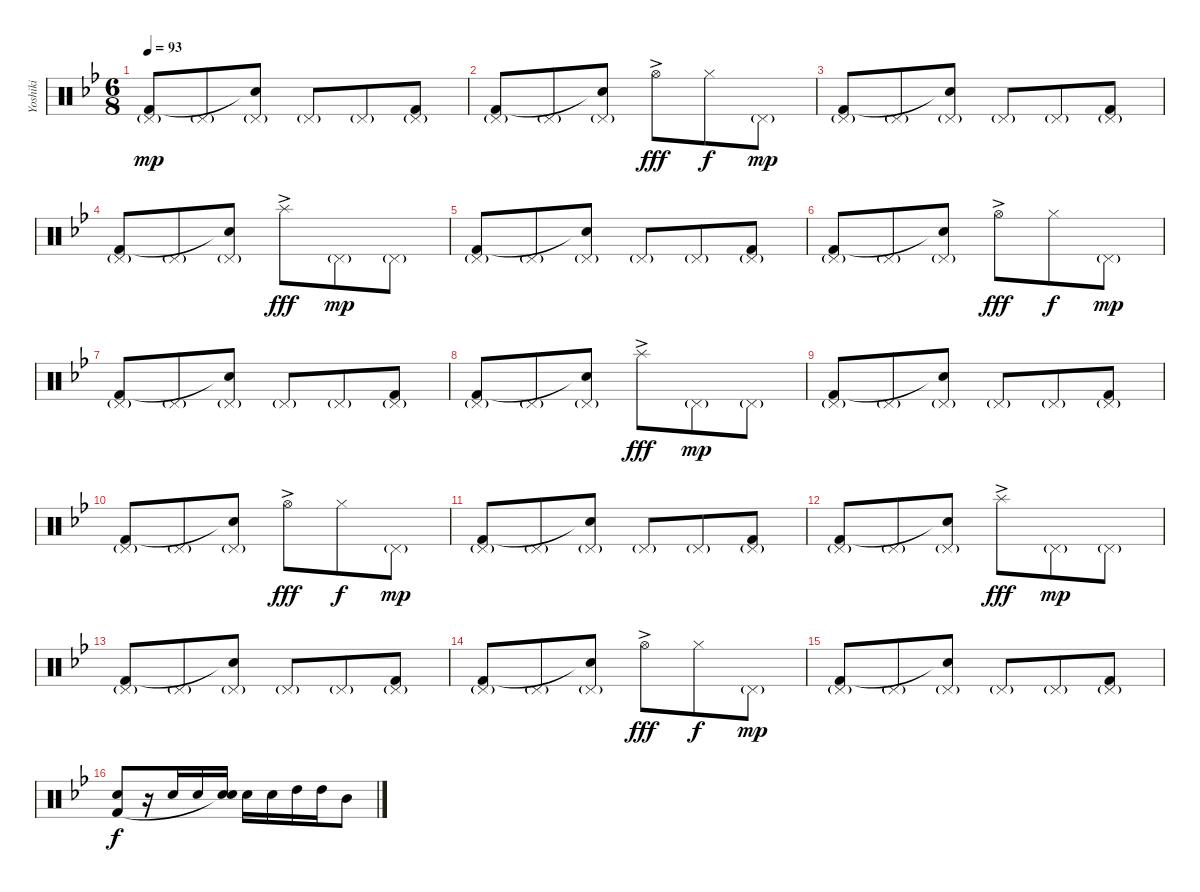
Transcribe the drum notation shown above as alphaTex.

\track ("Yoshiki" "Yoshiki") {instrument percussion}
\staff {score}
\articulation defaults
\ts (6 8)
\tempo 93
\clef neutral
\ks bb
("Pedal Hi-Hat (hit)"{g} "Kick (hit) 2").8{dy mp} "Pedal Hi-Hat (hit)"{g}.8 ("Pedal Hi-Hat (hit)"{g} "Snare (hit)"{t}).8 "Pedal Hi-Hat (hit)"{g}.8 "Pedal Hi-Hat (hit)"{g}.8 ("Pedal Hi-Hat (hit)"{g} "Kick (hit) 2").8 |
("Pedal Hi-Hat (hit)"{g} "Kick (hit) 2").8 "Pedal Hi-Hat (hit)"{g}.8 ("Pedal Hi-Hat (hit)"{g} "Snare (hit)"{t}).8 "Hi-Hat (open)"{ac}.8{dy fff} "Hi-Hat (closed)".8{dy f} "Pedal Hi-Hat (hit)"{g}.8{dy mp} |
("Pedal Hi-Hat (hit)"{g} "Kick (hit) 2").8 "Pedal Hi-Hat (hit)"{g}.8 ("Pedal Hi-Hat (hit)"{g} "Snare (hit)"{t}).8 "Pedal Hi-Hat (hit)"{g}.8 "Pedal Hi-Hat (hit)"{g}.8 ("Pedal Hi-Hat (hit)"{g} "Kick (hit) 2").8 |
("Pedal Hi-Hat (hit)"{g} "Kick (hit) 2").8 "Pedal Hi-Hat (hit)"{g}.8 ("Pedal Hi-Hat (hit)"{g} "Snare (hit)"{t}).8 "Splash (hit)"{ac}.8{dy fff} "Pedal Hi-Hat (hit)"{g}.8{dy mp} "Pedal Hi-Hat (hit)"{g}.8 |
("Pedal Hi-Hat (hit)"{g} "Kick (hit) 2").8 "Pedal Hi-Hat (hit)"{g}.8 ("Pedal Hi-Hat (hit)"{g} "Snare (hit)"{t}).8 "Pedal Hi-Hat (hit)"{g}.8 "Pedal Hi-Hat (hit)"{g}.8 ("Pedal Hi-Hat (hit)"{g} "Kick (hit) 2").8 |
("Pedal Hi-Hat (hit)"{g} "Kick (hit) 2").8 "Pedal Hi-Hat (hit)"{g}.8 ("Pedal Hi-Hat (hit)"{g} "Snare (hit)"{t}).8 "Hi-Hat (open)"{ac}.8{dy fff} "Hi-Hat (closed)".8{dy f} "Pedal Hi-Hat (hit)"{g}.8{dy mp} |
("Pedal Hi-Hat (hit)"{g} "Kick (hit) 2").8 "Pedal Hi-Hat (hit)"{g}.8 ("Pedal Hi-Hat (hit)"{g} "Snare (hit)"{t}).8 "Pedal Hi-Hat (hit)"{g}.8 "Pedal Hi-Hat (hit)"{g}.8 ("Pedal Hi-Hat (hit)"{g} "Kick (hit) 2").8 |
("Pedal Hi-Hat (hit)"{g} "Kick (hit) 2").8 "Pedal Hi-Hat (hit)"{g}.8 ("Pedal Hi-Hat (hit)"{g} "Snare (hit)"{t}).8 "Splash (hit)"{ac}.8{dy fff} "Pedal Hi-Hat (hit)"{g}.8{dy mp} "Pedal Hi-Hat (hit)"{g}.8 |
("Pedal Hi-Hat (hit)"{g} "Kick (hit) 2").8 "Pedal Hi-Hat (hit)"{g}.8 ("Pedal Hi-Hat (hit)"{g} "Snare (hit)"{t}).8 "Pedal Hi-Hat (hit)"{g}.8 "Pedal Hi-Hat (hit)"{g}.8 ("Pedal Hi-Hat (hit)"{g} "Kick (hit) 2").8 |
("Pedal Hi-Hat (hit)"{g} "Kick (hit) 2").8 "Pedal Hi-Hat (hit)"{g}.8 ("Pedal Hi-Hat (hit)"{g} "Snare (hit)"{t}).8 "Hi-Hat (open)"{ac}.8{dy fff} "Hi-Hat (closed)".8{dy f} "Pedal Hi-Hat (hit)"{g}.8{dy mp} |
("Pedal Hi-Hat (hit)"{g} "Kick (hit) 2").8 "Pedal Hi-Hat (hit)"{g}.8 ("Pedal Hi-Hat (hit)"{g} "Snare (hit)"{t}).8 "Pedal Hi-Hat (hit)"{g}.8 "Pedal Hi-Hat (hit)"{g}.8 ("Pedal Hi-Hat (hit)"{g} "Kick (hit) 2").8 |
("Pedal Hi-Hat (hit)"{g} "Kick (hit) 2").8 "Pedal Hi-Hat (hit)"{g}.8 ("Pedal Hi-Hat (hit)"{g} "Snare (hit)"{t}).8 "Splash (hit)"{ac}.8{dy fff} "Pedal Hi-Hat (hit)"{g}.8{dy mp} "Pedal Hi-Hat (hit)"{g}.8 |
("Pedal Hi-Hat (hit)"{g} "Kick (hit) 2").8 "Pedal Hi-Hat (hit)"{g}.8 ("Pedal Hi-Hat (hit)"{g} "Snare (hit)"{t}).8 "Pedal Hi-Hat (hit)"{g}.8 "Pedal Hi-Hat (hit)"{g}.8 ("Pedal Hi-Hat (hit)"{g} "Kick (hit) 2").8 |
("Pedal Hi-Hat (hit)"{g} "Kick (hit) 2").8 "Pedal Hi-Hat (hit)"{g}.8 ("Pedal Hi-Hat (hit)"{g} "Snare (hit)"{t}).8 "Hi-Hat (open)"{ac}.8{dy fff} "Hi-Hat (closed)".8{dy f} "Pedal Hi-Hat (hit)"{g}.8{dy mp} |
("Pedal Hi-Hat (hit)"{g} "Kick (hit) 2").8 "Pedal Hi-Hat (hit)"{g}.8 ("Pedal Hi-Hat (hit)"{g} "Snare (hit)"{t}).8 "Pedal Hi-Hat (hit)"{g}.8 "Pedal Hi-Hat (hit)"{g}.8 ("Pedal Hi-Hat (hit)"{g} "Kick (hit) 2").8 |
("Snare (hit) 2" "Kick (hit) 2").8{dy f} r.16 "Snare (hit) 2".16 "Snare (hit) 2".16 ("Snare (hit) 2" "Snare (hit)"{t}).16 "Snare (hit) 2".16 "Snare (hit) 2".16 "High Tom (hit)".16 "High Tom (hit)".16 "Mid Tom (hit)".8
